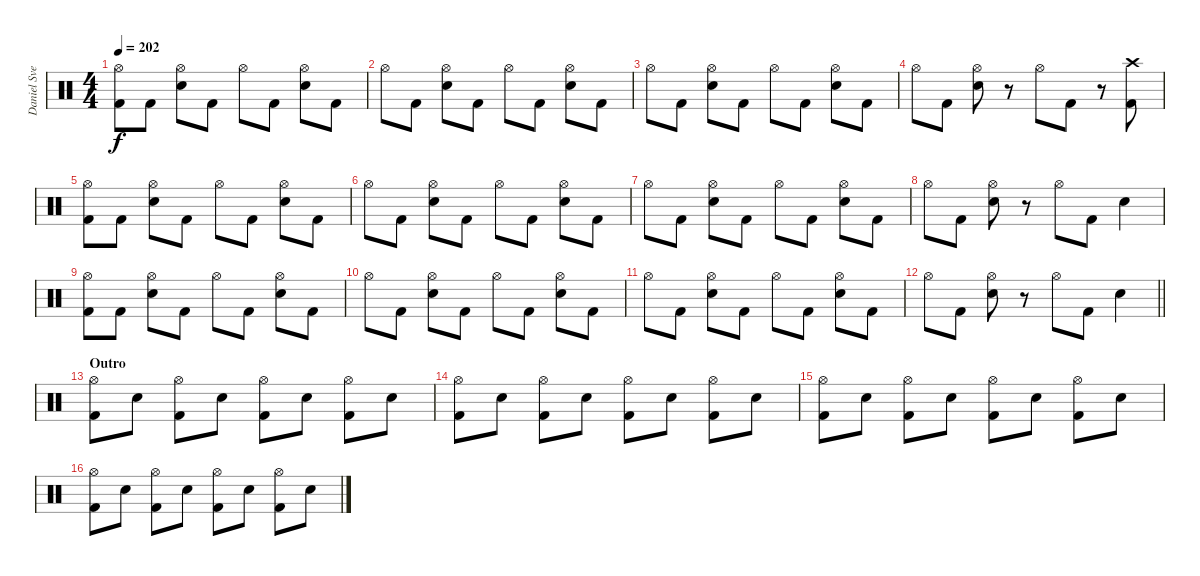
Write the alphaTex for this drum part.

\track ("Daniel Svensson" "Daniel Sve") {instrument percussion}
\staff {score}
\articulation defaults
\ts (4 4)
\tempo 202
\clef neutral
\ks c
("Hi-Hat (open)" "Kick (hit) 2").8{dy f} "Kick (hit) 2".8 ("Hi-Hat (open)" "Electric Snare (hit)").8 "Kick (hit) 2".8 "Hi-Hat (open)".8 "Kick (hit) 2".8 ("Hi-Hat (open)" "Electric Snare (hit)").8 "Kick (hit) 2".8 |
"Hi-Hat (open)".8 "Kick (hit) 2".8 ("Hi-Hat (open)" "Electric Snare (hit)").8 "Kick (hit) 2".8 "Hi-Hat (open)".8 "Kick (hit) 2".8 ("Hi-Hat (open)" "Electric Snare (hit)").8 "Kick (hit) 2".8 |
"Hi-Hat (open)".8 "Kick (hit) 2".8 ("Hi-Hat (open)" "Electric Snare (hit)").8 "Kick (hit) 2".8 "Hi-Hat (open)".8 "Kick (hit) 2".8 ("Hi-Hat (open)" "Electric Snare (hit)").8 "Kick (hit) 2".8 |
"Hi-Hat (open)".8 "Kick (hit) 2".8 ("Hi-Hat (open)" "Electric Snare (hit)").8 r.8 "Hi-Hat (open)".8 "Kick (hit) 2".8 r.8 ("Crash high (hit)" "Kick (hit) 2").8 |
("Hi-Hat (open)" "Kick (hit) 2").8 "Kick (hit) 2".8 ("Hi-Hat (open)" "Electric Snare (hit)").8 "Kick (hit) 2".8 "Hi-Hat (open)".8 "Kick (hit) 2".8 ("Hi-Hat (open)" "Electric Snare (hit)").8 "Kick (hit) 2".8 |
"Hi-Hat (open)".8 "Kick (hit) 2".8 ("Hi-Hat (open)" "Electric Snare (hit)").8 "Kick (hit) 2".8 "Hi-Hat (open)".8 "Kick (hit) 2".8 ("Hi-Hat (open)" "Electric Snare (hit)").8 "Kick (hit) 2".8 |
"Hi-Hat (open)".8 "Kick (hit) 2".8 ("Hi-Hat (open)" "Electric Snare (hit)").8 "Kick (hit) 2".8 "Hi-Hat (open)".8 "Kick (hit) 2".8 ("Hi-Hat (open)" "Electric Snare (hit)").8 "Kick (hit) 2".8 |
"Hi-Hat (open)".8 "Kick (hit) 2".8 ("Hi-Hat (open)" "Electric Snare (hit)").8 r.8 "Hi-Hat (open)".8 "Kick (hit) 2".8 "Electric Snare (hit)".4 |
("Hi-Hat (open)" "Kick (hit) 2").8 "Kick (hit) 2".8 ("Hi-Hat (open)" "Electric Snare (hit)").8 "Kick (hit) 2".8 "Hi-Hat (open)".8 "Kick (hit) 2".8 ("Hi-Hat (open)" "Electric Snare (hit)").8 "Kick (hit) 2".8 |
"Hi-Hat (open)".8 "Kick (hit) 2".8 ("Hi-Hat (open)" "Electric Snare (hit)").8 "Kick (hit) 2".8 "Hi-Hat (open)".8 "Kick (hit) 2".8 ("Hi-Hat (open)" "Electric Snare (hit)").8 "Kick (hit) 2".8 |
"Hi-Hat (open)".8 "Kick (hit) 2".8 ("Hi-Hat (open)" "Electric Snare (hit)").8 "Kick (hit) 2".8 "Hi-Hat (open)".8 "Kick (hit) 2".8 ("Hi-Hat (open)" "Electric Snare (hit)").8 "Kick (hit) 2".8 |
\barLineRight lightlight "Hi-Hat (open)".8 "Kick (hit) 2".8
("Hi-Hat (open)" "Electric Snare (hit)").8 r.8 "Hi-Hat (open)".8 "Kick (hit) 2".8 "Electric Snare (hit)".4 |
\section ("" "Outro")
("Hi-Hat (open)" "Kick (hit) 2").8 "Electric Snare (hit)".8 ("Hi-Hat (open)" "Kick (hit) 2").8 "Electric Snare (hit)".8 ("Hi-Hat (open)" "Kick (hit) 2").8 "Electric Snare (hit)".8 ("Hi-Hat (open)" "Kick (hit) 2").8 "Electric Snare (hit)".8 |
("Hi-Hat (open)" "Kick (hit) 2").8 "Electric Snare (hit)".8 ("Hi-Hat (open)" "Kick (hit) 2").8 "Electric Snare (hit)".8 ("Hi-Hat (open)" "Kick (hit) 2").8 "Electric Snare (hit)".8 ("Hi-Hat (open)" "Kick (hit) 2").8 "Electric Snare (hit)".8 |
("Hi-Hat (open)" "Kick (hit) 2").8 "Electric Snare (hit)".8 ("Hi-Hat (open)" "Kick (hit) 2").8 "Electric Snare (hit)".8 ("Hi-Hat (open)" "Kick (hit) 2").8 "Electric Snare (hit)".8 ("Hi-Hat (open)" "Kick (hit) 2").8 "Electric Snare (hit)".8 |
("Hi-Hat (open)" "Kick (hit) 2").8 "Electric Snare (hit)".8 ("Hi-Hat (open)" "Kick (hit) 2").8 "Electric Snare (hit)".8 ("Hi-Hat (open)" "Kick (hit) 2").8 "Electric Snare (hit)".8 ("Hi-Hat (open)" "Kick (hit) 2").8 "Electric Snare (hit)".8
